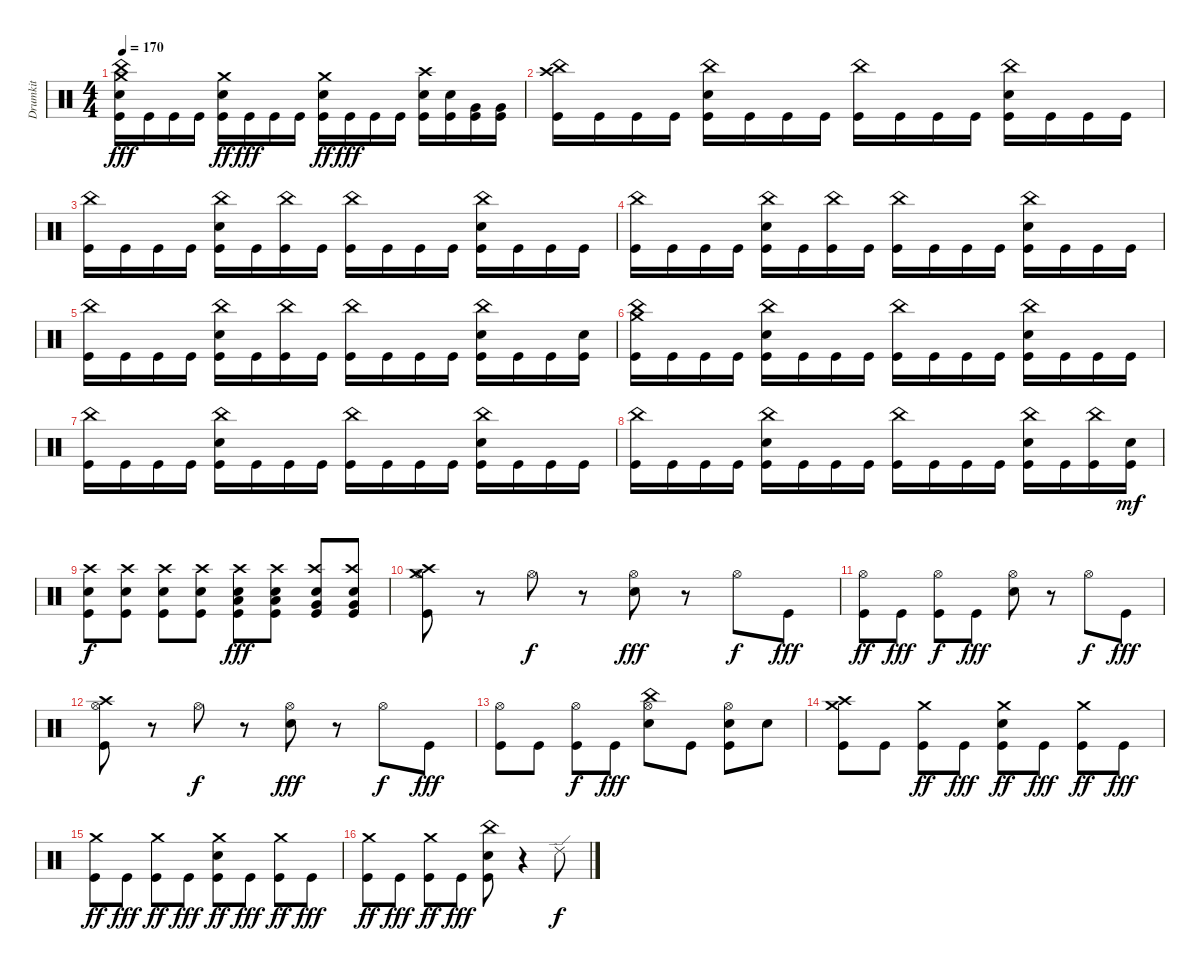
\track ("Drumkit" "Drumkit") {instrument percussion}
\staff {score}
\articulation defaults
\ts (4 4)
\tempo 170
\clef neutral
\ks c
("China (hit)" "Crash medium (hit)" "Snare (hit) 2" "Kick (hit)").16{dy fff} "Kick (hit)".16 "Kick (hit)".16 "Kick (hit)".16 ("Crash medium (hit)" "Snare (hit) 2" "Kick (hit)").16{dy ff} "Kick (hit)".16{dy fff} "Kick (hit)".16 "Kick (hit)".16 ("Crash medium (hit)" "Snare (hit) 2" "Kick (hit)").16{dy ff} "Kick (hit)".16{dy fff} "Kick (hit)".16 "Kick (hit)".16 ("Crash high (hit)" "Snare (hit) 2" "Kick (hit)").16 ("Snare (hit) 2" "Kick (hit)").16 ("Very Low Tom (hit)" "Kick (hit)").16 ("Very Low Tom (hit)" "Kick (hit)").16 |
("China (hit)" "Crash high (hit)" "Kick (hit)").16 "Kick (hit)".16 "Kick (hit)".16 "Kick (hit)".16 ("China (hit)" "Snare (hit) 2" "Kick (hit)").16 "Kick (hit)".16 "Kick (hit)".16 "Kick (hit)".16 ("China (hit)" "Kick (hit)").16 "Kick (hit)".16 "Kick (hit)".16 "Kick (hit)".16 ("China (hit)" "Snare (hit) 2" "Kick (hit)").16 "Kick (hit)".16 "Kick (hit)".16 "Kick (hit)".16 |
("China (hit)" "Kick (hit)").16 "Kick (hit)".16 "Kick (hit)".16 "Kick (hit)".16 ("China (hit)" "Snare (hit) 2" "Kick (hit)").16 "Kick (hit)".16 ("China (hit)" "Kick (hit)").16 "Kick (hit)".16 ("China (hit)" "Kick (hit)").16 "Kick (hit)".16 "Kick (hit)".16 "Kick (hit)".16 ("China (hit)" "Snare (hit) 2" "Kick (hit)").16 "Kick (hit)".16 "Kick (hit)".16 "Kick (hit)".16 |
("China (hit)" "Kick (hit)").16 "Kick (hit)".16 "Kick (hit)".16 "Kick (hit)".16 ("China (hit)" "Snare (hit) 2" "Kick (hit)").16 "Kick (hit)".16 ("China (hit)" "Kick (hit)").16 "Kick (hit)".16 ("China (hit)" "Kick (hit)").16 "Kick (hit)".16 "Kick (hit)".16 "Kick (hit)".16 ("China (hit)" "Snare (hit) 2" "Kick (hit)").16 "Kick (hit)".16 "Kick (hit)".16 "Kick (hit)".16 |
("China (hit)" "Kick (hit)").16 "Kick (hit)".16 "Kick (hit)".16 "Kick (hit)".16 ("China (hit)" "Snare (hit) 2" "Kick (hit)").16 "Kick (hit)".16 ("China (hit)" "Kick (hit)").16 "Kick (hit)".16 ("China (hit)" "Kick (hit)").16 "Kick (hit)".16 "Kick (hit)".16 "Kick (hit)".16 ("China (hit)" "Snare (hit) 2" "Kick (hit)").16 "Kick (hit)".16 "Kick (hit)".16 ("Snare (hit) 2" "Kick (hit)").16 |
("China (hit)" "Crash medium (hit)" "Kick (hit)").16 "Kick (hit)".16 "Kick (hit)".16 "Kick (hit)".16 ("China (hit)" "Snare (hit) 2" "Kick (hit)").16 "Kick (hit)".16 "Kick (hit)".16 "Kick (hit)".16 ("China (hit)" "Kick (hit)").16 "Kick (hit)".16 "Kick (hit)".16 "Kick (hit)".16 ("China (hit)" "Snare (hit) 2" "Kick (hit)").16 "Kick (hit)".16 "Kick (hit)".16 "Kick (hit)".16 |
("China (hit)" "Kick (hit)").16 "Kick (hit)".16 "Kick (hit)".16 "Kick (hit)".16 ("China (hit)" "Snare (hit) 2" "Kick (hit)").16 "Kick (hit)".16 "Kick (hit)".16 "Kick (hit)".16 ("China (hit)" "Kick (hit)").16 "Kick (hit)".16 "Kick (hit)".16 "Kick (hit)".16 ("China (hit)" "Snare (hit) 2" "Kick (hit)").16 "Kick (hit)".16 "Kick (hit)".16 "Kick (hit)".16 |
("China (hit)" "Kick (hit)").16 "Kick (hit)".16 "Kick (hit)".16 "Kick (hit)".16 ("China (hit)" "Snare (hit) 2" "Kick (hit)").16 "Kick (hit)".16 "Kick (hit)".16 "Kick (hit)".16 ("China (hit)" "Kick (hit)").16 "Kick (hit)".16 "Kick (hit)".16 "Kick (hit)".16 ("China (hit)" "Snare (hit) 2" "Kick (hit)").16 "Kick (hit)".16 ("China (hit)" "Kick (hit)").16 ("Snare (hit) 2" "Kick (hit)").16{dy mf} |
("Crash high (hit)" "Snare (hit) 2" "Kick (hit)").8{dy f} ("Crash high (hit)" "Snare (hit) 2" "Kick (hit)").8 ("Crash high (hit)" "Snare (hit) 2" "Kick (hit)").8 ("Crash high (hit)" "Snare (hit) 2" "Kick (hit)").8 ("Low Tom (hit)" "Crash high (hit)" "Snare (hit) 2" "Kick (hit)").8{dy fff} ("Low Tom (hit)" "Crash high (hit)" "Snare (hit) 2" "Kick (hit)").8 ("Crash high (hit)" "Very Low Tom (hit)" "Snare (hit) 2" "Kick (hit)").8 ("Crash high (hit)" "Very Low Tom (hit)" "Snare (hit) 2" "Kick (hit)").8 |
("Hi-Hat (open)" "Crash high (hit)" "Crash medium (hit)" "Kick (hit)").8 r.8 "Hi-Hat (open)".8{dy f} r.8 ("Hi-Hat (open)" "Snare (hit) 2").8{dy fff} r.8 "Hi-Hat (open)".8{dy f} "Kick (hit)".8{dy fff} |
("Hi-Hat (open)" "Kick (hit)").8{dy ff} "Kick (hit)".8{dy fff} ("Hi-Hat (open)" "Kick (hit)").8{dy f} "Kick (hit)".8{dy fff} ("Hi-Hat (open)" "Snare (hit) 2").8 r.8 "Hi-Hat (open)".8{dy f} "Kick (hit)".8{dy fff} |
("Hi-Hat (open)" "Crash high (hit)" "Kick (hit)").8 r.8 "Hi-Hat (open)".8{dy f} r.8 ("Hi-Hat (open)" "Snare (hit) 2").8{dy fff} r.8 "Hi-Hat (open)".8{dy f} "Kick (hit)".8{dy fff} |
("Hi-Hat (open)" "Kick (hit)").8 "Kick (hit)".8 ("Hi-Hat (open)" "Kick (hit)").8{dy f} "Kick (hit)".8{dy fff} ("China (hit)" "Hi-Hat (open)" "Snare (hit) 2").8 "Kick (hit)".8 ("Hi-Hat (open)" "Snare (hit) 2" "Kick (hit)").8 "Snare (hit) 2".8 |
("Crash high (hit)" "Crash medium (hit)" "Kick (hit)").8 "Kick (hit)".8 ("Crash medium (hit)" "Kick (hit)").8{dy ff} "Kick (hit)".8{dy fff} ("Crash medium (hit)" "Snare (hit) 2" "Kick (hit)").8{dy ff} "Kick (hit)".8{dy fff} ("Crash medium (hit)" "Kick (hit)").8{dy ff} "Kick (hit)".8{dy fff} |
("Crash medium (hit)" "Kick (hit)").8{dy ff} "Kick (hit)".8{dy fff} ("Crash medium (hit)" "Kick (hit)").8{dy ff} "Kick (hit)".8{dy fff} ("Crash medium (hit)" "Snare (hit) 2" "Kick (hit)").8{dy ff} "Kick (hit)".8{dy fff} ("Crash medium (hit)" "Kick (hit)").8{dy ff} "Kick (hit)".8{dy fff} |
("Crash medium (hit)" "Kick (hit)").8{dy ff} "Kick (hit)".8{dy fff} ("Crash medium (hit)" "Kick (hit)").8{dy ff} "Kick (hit)".8{dy fff} ("China (hit)" "Snare (hit) 2" "Kick (hit)").8 r.4 "Ride (edge) 2".8{dy f}
